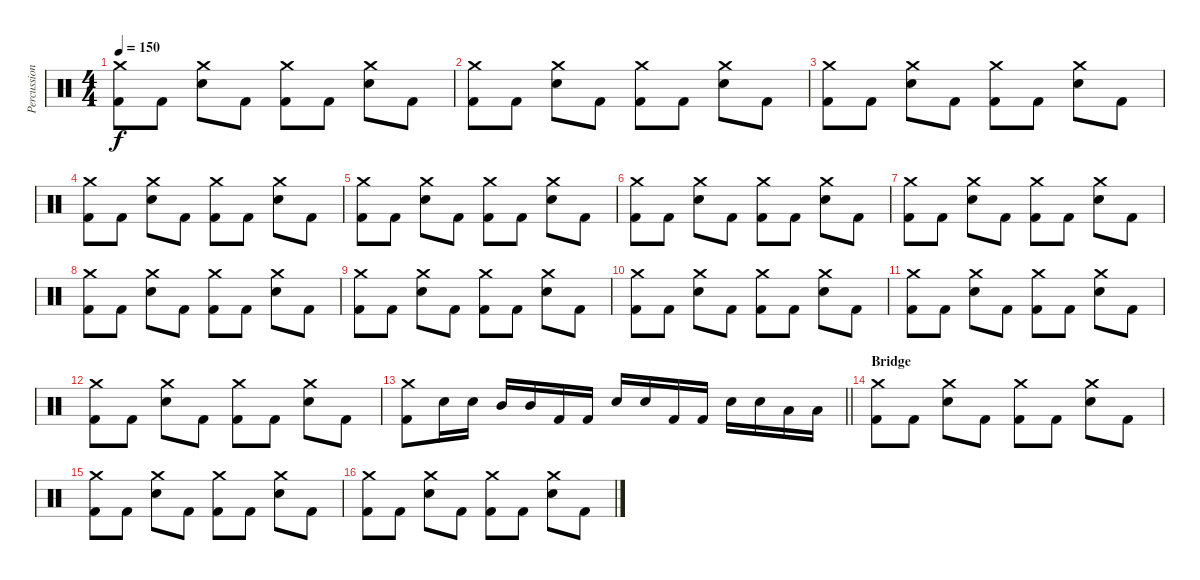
\track ("Percussion" "Percussion") {instrument percussion}
\staff {score}
\articulation defaults
\ts (4 4)
\tempo 150
\clef neutral
\ks c
("Crash medium (hit)" "Kick (hit) 2").8{dy f} "Kick (hit) 2".8 ("Crash medium (hit)" "Electric Snare (hit)").8 "Kick (hit) 2".8 ("Crash medium (hit)" "Kick (hit) 2").8 "Kick (hit) 2".8 ("Crash medium (hit)" "Electric Snare (hit)").8 "Kick (hit) 2".8 |
("Crash medium (hit)" "Kick (hit) 2").8 "Kick (hit) 2".8 ("Crash medium (hit)" "Electric Snare (hit)").8 "Kick (hit) 2".8 ("Crash medium (hit)" "Kick (hit) 2").8 "Kick (hit) 2".8 ("Crash medium (hit)" "Electric Snare (hit)").8 "Kick (hit) 2".8 |
("Crash medium (hit)" "Kick (hit) 2").8 "Kick (hit) 2".8 ("Crash medium (hit)" "Electric Snare (hit)").8 "Kick (hit) 2".8 ("Crash medium (hit)" "Kick (hit) 2").8 "Kick (hit) 2".8 ("Crash medium (hit)" "Electric Snare (hit)").8 "Kick (hit) 2".8 |
("Crash medium (hit)" "Kick (hit) 2").8 "Kick (hit) 2".8 ("Crash medium (hit)" "Electric Snare (hit)").8 "Kick (hit) 2".8 ("Crash medium (hit)" "Kick (hit) 2").8 "Kick (hit) 2".8 ("Crash medium (hit)" "Electric Snare (hit)").8 "Kick (hit) 2".8 |
("Crash medium (hit)" "Kick (hit) 2").8 "Kick (hit) 2".8 ("Crash medium (hit)" "Electric Snare (hit)").8 "Kick (hit) 2".8 ("Crash medium (hit)" "Kick (hit) 2").8 "Kick (hit) 2".8 ("Crash medium (hit)" "Electric Snare (hit)").8 "Kick (hit) 2".8 |
("Crash medium (hit)" "Kick (hit) 2").8 "Kick (hit) 2".8 ("Crash medium (hit)" "Electric Snare (hit)").8 "Kick (hit) 2".8 ("Crash medium (hit)" "Kick (hit) 2").8 "Kick (hit) 2".8 ("Crash medium (hit)" "Electric Snare (hit)").8 "Kick (hit) 2".8 |
("Crash medium (hit)" "Kick (hit) 2").8 "Kick (hit) 2".8 ("Crash medium (hit)" "Electric Snare (hit)").8 "Kick (hit) 2".8 ("Crash medium (hit)" "Kick (hit) 2").8 "Kick (hit) 2".8 ("Crash medium (hit)" "Electric Snare (hit)").8 "Kick (hit) 2".8 |
("Crash medium (hit)" "Kick (hit) 2").8 "Kick (hit) 2".8 ("Crash medium (hit)" "Electric Snare (hit)").8 "Kick (hit) 2".8 ("Crash medium (hit)" "Kick (hit) 2").8 "Kick (hit) 2".8 ("Crash medium (hit)" "Electric Snare (hit)").8 "Kick (hit) 2".8 |
("Crash medium (hit)" "Kick (hit) 2").8 "Kick (hit) 2".8 ("Crash medium (hit)" "Electric Snare (hit)").8 "Kick (hit) 2".8 ("Crash medium (hit)" "Kick (hit) 2").8 "Kick (hit) 2".8 ("Crash medium (hit)" "Electric Snare (hit)").8 "Kick (hit) 2".8 |
("Crash medium (hit)" "Kick (hit) 2").8 "Kick (hit) 2".8 ("Crash medium (hit)" "Electric Snare (hit)").8 "Kick (hit) 2".8 ("Crash medium (hit)" "Kick (hit) 2").8 "Kick (hit) 2".8 ("Crash medium (hit)" "Electric Snare (hit)").8 "Kick (hit) 2".8 |
("Crash medium (hit)" "Kick (hit) 2").8 "Kick (hit) 2".8 ("Crash medium (hit)" "Electric Snare (hit)").8 "Kick (hit) 2".8 ("Crash medium (hit)" "Kick (hit) 2").8 "Kick (hit) 2".8 ("Crash medium (hit)" "Electric Snare (hit)").8 "Kick (hit) 2".8 |
("Crash medium (hit)" "Kick (hit) 2").8 "Kick (hit) 2".8 ("Crash medium (hit)" "Electric Snare (hit)").8 "Kick (hit) 2".8 ("Crash medium (hit)" "Kick (hit) 2").8 "Kick (hit) 2".8 ("Crash medium (hit)" "Electric Snare (hit)").8 "Kick (hit) 2".8 |
\barLineRight lightlight
("Crash medium (hit)" "Kick (hit) 2").8 "Electric Snare (hit)".16 "Electric Snare (hit)".16 "Mid Tom (hit)".16 "Mid Tom (hit)".16 "Kick (hit) 2".16 "Kick (hit) 2".16 "Electric Snare (hit)".16 "Electric Snare (hit)".16 "Kick (hit) 2".16 "Kick (hit) 2".16 "Electric Snare (hit)".16 "Electric Snare (hit)".16 "Low Tom (hit)".16 "Low Tom (hit)".16 |
\section ("" "Bridge")
("Crash medium (hit)" "Kick (hit) 2").8 "Kick (hit) 2".8 ("Crash medium (hit)" "Electric Snare (hit)").8 "Kick (hit) 2".8 ("Crash medium (hit)" "Kick (hit) 2").8 "Kick (hit) 2".8 ("Crash medium (hit)" "Electric Snare (hit)").8 "Kick (hit) 2".8 |
("Crash medium (hit)" "Kick (hit) 2").8 "Kick (hit) 2".8 ("Crash medium (hit)" "Electric Snare (hit)").8 "Kick (hit) 2".8 ("Crash medium (hit)" "Kick (hit) 2").8 "Kick (hit) 2".8 ("Crash medium (hit)" "Electric Snare (hit)").8 "Kick (hit) 2".8 |
("Crash medium (hit)" "Kick (hit) 2").8 "Kick (hit) 2".8 ("Crash medium (hit)" "Electric Snare (hit)").8 "Kick (hit) 2".8 ("Crash medium (hit)" "Kick (hit) 2").8 "Kick (hit) 2".8 ("Crash medium (hit)" "Electric Snare (hit)").8 "Kick (hit) 2".8
